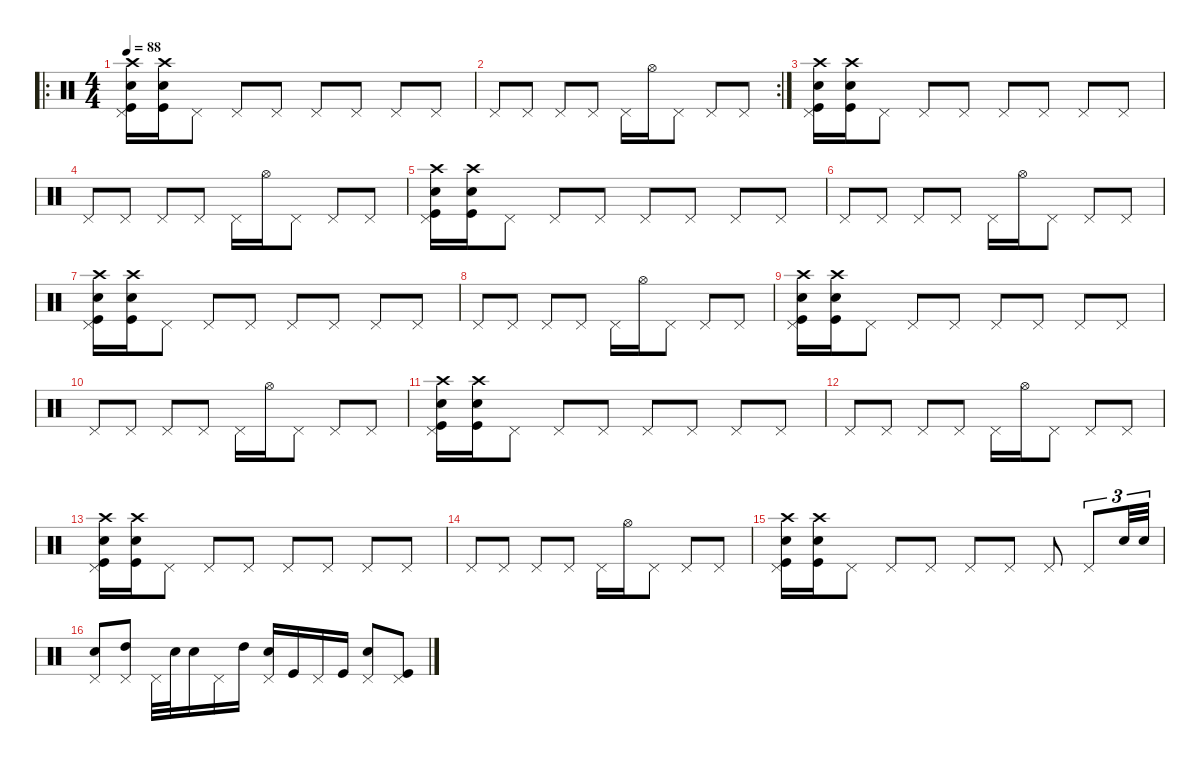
\defaultSystemsLayout 4
\hideDynamics
\bracketExtendMode nobrackets
\singleTrackTrackNamePolicy hidden
\multiTrackTrackNamePolicy hidden
\firstSystemTrackNameMode fullname
\firstSystemTrackNameOrientation horizontal
\otherSystemsTrackNameOrientation horizontal
\track ("Drums" "drm.") {instrument percussion}
\staff {score}
\articulation defaults
\ro
\ts (4 4)
\tempo 88
\clef neutral
\ks c
("Crash high (hit)" "Pedal Hi-Hat (hit)" "Snare (hit) 2" "Kick (hit)").16{dy f beam Down} ("Crash high (hit)" "Snare (hit) 2" "Kick (hit)").16{beam Down} "Pedal Hi-Hat (hit)".8{dy p beam Down} "Pedal Hi-Hat (hit)".8{beam Up} "Pedal Hi-Hat (hit)".8{beam Up} "Pedal Hi-Hat (hit)".8{beam Up} "Pedal Hi-Hat (hit)".8{beam Up} "Pedal Hi-Hat (hit)".8{beam Up} "Pedal Hi-Hat (hit)".8{beam Up} |
\rc 2 "Pedal Hi-Hat (hit)".8{beam Up} "Pedal Hi-Hat (hit)".8{beam Up} "Pedal Hi-Hat (hit)".8{beam Up} "Pedal Hi-Hat (hit)".8{beam Up} "Pedal Hi-Hat (hit)".16{beam Down} "Hi-Hat (open)".16{dy mf beam Down} "Pedal Hi-Hat (hit)".8{dy p beam Down} "Pedal Hi-Hat (hit)".8{beam Up} "Pedal Hi-Hat (hit)".8{beam Up}
|
("Crash high (hit)" "Pedal Hi-Hat (hit)" "Snare (hit) 2" "Kick (hit)").16{dy f beam Down} ("Crash high (hit)" "Snare (hit) 2" "Kick (hit)").16{beam Down} "Pedal Hi-Hat (hit)".8{dy p beam Down} "Pedal Hi-Hat (hit)".8{beam Up} "Pedal Hi-Hat (hit)".8{beam Up} "Pedal Hi-Hat (hit)".8{beam Up} "Pedal Hi-Hat (hit)".8{beam Up} "Pedal Hi-Hat (hit)".8{beam Up} "Pedal Hi-Hat (hit)".8{beam Up} |
"Pedal Hi-Hat (hit)".8{beam Up} "Pedal Hi-Hat (hit)".8{beam Up} "Pedal Hi-Hat (hit)".8{beam Up} "Pedal Hi-Hat (hit)".8{beam Up} "Pedal Hi-Hat (hit)".16{beam Down} "Hi-Hat (open)".16{dy mf beam Down} "Pedal Hi-Hat (hit)".8{dy p beam Down} "Pedal Hi-Hat (hit)".8{beam Up} "Pedal Hi-Hat (hit)".8{beam Up} |
("Crash high (hit)" "Pedal Hi-Hat (hit)" "Snare (hit) 2" "Kick (hit)").16{dy f beam Down} ("Crash high (hit)" "Snare (hit) 2" "Kick (hit)").16{beam Down} "Pedal Hi-Hat (hit)".8{dy p beam Down} "Pedal Hi-Hat (hit)".8{beam Up} "Pedal Hi-Hat (hit)".8{beam Up} "Pedal Hi-Hat (hit)".8{beam Up} "Pedal Hi-Hat (hit)".8{beam Up} "Pedal Hi-Hat (hit)".8{beam Up} "Pedal Hi-Hat (hit)".8{beam Up} |
"Pedal Hi-Hat (hit)".8{beam Up} "Pedal Hi-Hat (hit)".8{beam Up} "Pedal Hi-Hat (hit)".8{beam Up} "Pedal Hi-Hat (hit)".8{beam Up} "Pedal Hi-Hat (hit)".16{beam Down} "Hi-Hat (open)".16{dy mf beam Down} "Pedal Hi-Hat (hit)".8{dy p beam Down} "Pedal Hi-Hat (hit)".8{beam Up} "Pedal Hi-Hat (hit)".8{beam Up} |
("Crash high (hit)" "Pedal Hi-Hat (hit)" "Snare (hit) 2" "Kick (hit)").16{dy f beam Down} ("Crash high (hit)" "Snare (hit) 2" "Kick (hit)").16{beam Down} "Pedal Hi-Hat (hit)".8{dy p beam Down} "Pedal Hi-Hat (hit)".8{beam Up} "Pedal Hi-Hat (hit)".8{beam Up} "Pedal Hi-Hat (hit)".8{beam Up} "Pedal Hi-Hat (hit)".8{beam Up} "Pedal Hi-Hat (hit)".8{beam Up} "Pedal Hi-Hat (hit)".8{beam Up} |
"Pedal Hi-Hat (hit)".8{beam Up} "Pedal Hi-Hat (hit)".8{beam Up} "Pedal Hi-Hat (hit)".8{beam Up} "Pedal Hi-Hat (hit)".8{beam Up} "Pedal Hi-Hat (hit)".16{beam Down} "Hi-Hat (open)".16{dy mf beam Down} "Pedal Hi-Hat (hit)".8{dy p beam Down} "Pedal Hi-Hat (hit)".8{beam Up} "Pedal Hi-Hat (hit)".8{beam Up} |
("Crash high (hit)" "Pedal Hi-Hat (hit)" "Snare (hit) 2" "Kick (hit)").16{dy f beam Down} ("Crash high (hit)" "Snare (hit) 2" "Kick (hit)").16{beam Down} "Pedal Hi-Hat (hit)".8{dy p beam Down} "Pedal Hi-Hat (hit)".8{beam Up} "Pedal Hi-Hat (hit)".8{beam Up} "Pedal Hi-Hat (hit)".8{beam Up} "Pedal Hi-Hat (hit)".8{beam Up} "Pedal Hi-Hat (hit)".8{beam Up} "Pedal Hi-Hat (hit)".8{beam Up} |
"Pedal Hi-Hat (hit)".8{beam Up} "Pedal Hi-Hat (hit)".8{beam Up} "Pedal Hi-Hat (hit)".8{beam Up} "Pedal Hi-Hat (hit)".8{beam Up} "Pedal Hi-Hat (hit)".16{beam Down} "Hi-Hat (open)".16{dy mf beam Down} "Pedal Hi-Hat (hit)".8{dy p beam Down} "Pedal Hi-Hat (hit)".8{beam Up} "Pedal Hi-Hat (hit)".8{beam Up} |
("Crash high (hit)" "Pedal Hi-Hat (hit)" "Snare (hit) 2" "Kick (hit)").16{dy f beam Down} ("Crash high (hit)" "Snare (hit) 2" "Kick (hit)").16{beam Down} "Pedal Hi-Hat (hit)".8{dy p beam Down} "Pedal Hi-Hat (hit)".8{beam Up} "Pedal Hi-Hat (hit)".8{beam Up} "Pedal Hi-Hat (hit)".8{beam Up} "Pedal Hi-Hat (hit)".8{beam Up} "Pedal Hi-Hat (hit)".8{beam Up} "Pedal Hi-Hat (hit)".8{beam Up} |
"Pedal Hi-Hat (hit)".8{beam Up} "Pedal Hi-Hat (hit)".8{beam Up} "Pedal Hi-Hat (hit)".8{beam Up} "Pedal Hi-Hat (hit)".8{beam Up} "Pedal Hi-Hat (hit)".16{beam Down} "Hi-Hat (open)".16{dy mf beam Down} "Pedal Hi-Hat (hit)".8{dy p beam Down} "Pedal Hi-Hat (hit)".8{beam Up} "Pedal Hi-Hat (hit)".8{beam Up} |
("Crash high (hit)" "Pedal Hi-Hat (hit)" "Snare (hit) 2" "Kick (hit)").16{dy f beam Down} ("Crash high (hit)" "Snare (hit) 2" "Kick (hit)").16{beam Down} "Pedal Hi-Hat (hit)".8{dy p beam Down} "Pedal Hi-Hat (hit)".8{beam Up} "Pedal Hi-Hat (hit)".8{beam Up} "Pedal Hi-Hat (hit)".8{beam Up} "Pedal Hi-Hat (hit)".8{beam Up} "Pedal Hi-Hat (hit)".8{beam Up} "Pedal Hi-Hat (hit)".8{beam Up} |
"Pedal Hi-Hat (hit)".8{beam Up} "Pedal Hi-Hat (hit)".8{beam Up} "Pedal Hi-Hat (hit)".8{beam Up} "Pedal Hi-Hat (hit)".8{beam Up} "Pedal Hi-Hat (hit)".16{beam Down} "Hi-Hat (open)".16{dy mf beam Down} "Pedal Hi-Hat (hit)".8{dy p beam Down} "Pedal Hi-Hat (hit)".8{beam Up} "Pedal Hi-Hat (hit)".8{beam Up} |
("Crash high (hit)" "Pedal Hi-Hat (hit)" "Snare (hit) 2" "Kick (hit)").16{dy f beam Down} ("Crash high (hit)" "Snare (hit) 2" "Kick (hit)").16{beam Down} "Pedal Hi-Hat (hit)".8{dy p beam Down} "Pedal Hi-Hat (hit)".8{beam Up} "Pedal Hi-Hat (hit)".8{beam Up} "Pedal Hi-Hat (hit)".8{beam Up} "Pedal Hi-Hat (hit)".8{beam Up} "Pedal Hi-Hat (hit)".8{beam Up} "Pedal Hi-Hat (hit)".8{tu (3 2) beam Up} "Snare (hit) 2".32{tu (3 2) dy pp beam Up} "Snare (hit) 2".32{tu (3 2) dy p beam Up} |
("Pedal Hi-Hat (hit)" "Snare (hit) 2").8{beam Up} ("Pedal Hi-Hat (hit)" "High Tom (hit)").8{beam Up} "Pedal Hi-Hat (hit)".32{beam Down} "Snare (hit) 2".32{beam Down} "Snare (hit) 2".16{dy f beam Down} "Pedal Hi-Hat (hit)".16{dy p beam Down} "High Tom (hit)".16{dy f beam Down} ("Pedal Hi-Hat (hit)" "Snare (hit) 2").16{dy p beam Up} "Kick (hit)".16{dy f beam Up} "Pedal Hi-Hat (hit)".16{dy p beam Up} "Kick (hit)".16{dy f beam Up} ("Pedal Hi-Hat (hit)" "Snare (hit) 2").8{dy p beam Up} ("Pedal Hi-Hat (hit)" "Kick (hit)").8{beam Up}
